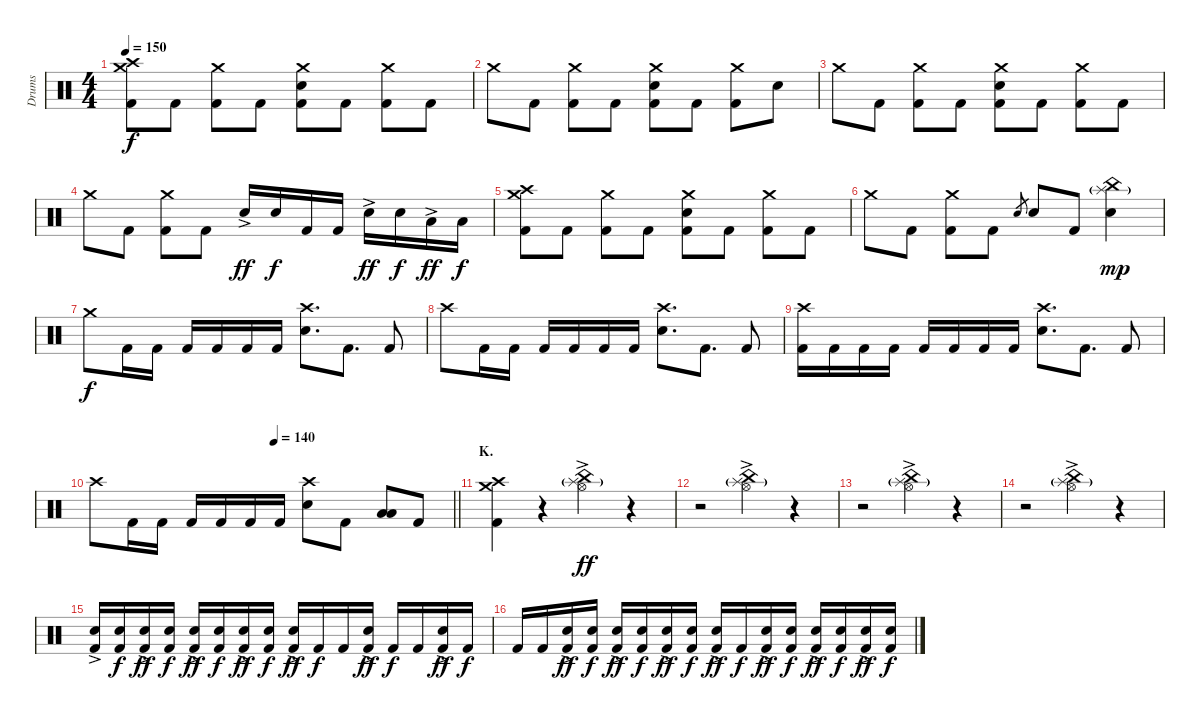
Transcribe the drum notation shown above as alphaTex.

\track ("Drums" "Drums") {instrument percussion}
\staff {score}
\articulation defaults
\ts (4 4)
\tempo 150
\clef neutral
\ks c
("Crash medium (hit)" "Crash high (hit)" "Kick (hit) 2").8{dy f} "Kick (hit) 2".8 ("Crash medium (hit)" "Kick (hit) 2").8 "Kick (hit) 2".8 ("Crash medium (hit)" "Electric Snare (hit)" "Kick (hit) 2").8 "Kick (hit) 2".8 ("Crash medium (hit)" "Kick (hit) 2").8 "Kick (hit) 2".8 |
"Crash medium (hit)".8 "Kick (hit) 2".8 ("Crash medium (hit)" "Kick (hit) 2").8 "Kick (hit) 2".8 ("Crash medium (hit)" "Electric Snare (hit)" "Kick (hit) 2").8 "Kick (hit) 2".8 ("Crash medium (hit)" "Kick (hit) 2").8 "Electric Snare (hit)".8 |
"Crash medium (hit)".8 "Kick (hit) 2".8 ("Crash medium (hit)" "Kick (hit) 2").8 "Kick (hit) 2".8 ("Crash medium (hit)" "Electric Snare (hit)" "Kick (hit) 2").8 "Kick (hit) 2".8 ("Crash medium (hit)" "Kick (hit) 2").8 "Kick (hit) 2".8 |
"Crash medium (hit)".8 "Kick (hit) 2".8 ("Crash medium (hit)" "Kick (hit) 2").8 "Kick (hit) 2".8 "Electric Snare (hit)"{ac}.16{dy ff} "Electric Snare (hit)".16{dy f} "Kick (hit) 2".16 "Kick (hit) 2".16 "Electric Snare (hit)"{ac}.16{dy ff} "Electric Snare (hit)".16{dy f} "Low Tom (hit)"{ac}.16{dy ff} "Low Tom (hit)".16{dy f} |
("Crash medium (hit)" "Crash high (hit)" "Kick (hit) 2").8 "Kick (hit) 2".8 ("Crash medium (hit)" "Kick (hit) 2").8 "Kick (hit) 2".8 ("Crash medium (hit)" "Electric Snare (hit)" "Kick (hit) 2").8 "Kick (hit) 2".8 ("Crash medium (hit)" "Kick (hit) 2").8 "Kick (hit) 2".8 |
"Crash medium (hit)".8 "Kick (hit) 2".8 ("Crash medium (hit)" "Kick (hit) 2").8 "Kick (hit) 2".8 "Electric Snare (hit)".8{gr} "Electric Snare (hit)".8 "Kick (hit) 2".8 ("China (hit)" "Splash (hit)"{g} "Electric Snare (hit)").4{dy mp} |
"Crash medium (hit)".8{dy f} "Kick (hit) 2".16 "Kick (hit) 2".16 "Kick (hit) 2".16 "Kick (hit) 2".16 "Kick (hit) 2".16 "Kick (hit) 2".16 ("Crash high (hit)" "Electric Snare (hit)").8{d} "Kick (hit) 2".8{d} "Kick (hit) 2".8 |
"Crash high (hit)".8 "Kick (hit) 2".16 "Kick (hit) 2".16 "Kick (hit) 2".16 "Kick (hit) 2".16 "Kick (hit) 2".16 "Kick (hit) 2".16 ("Crash high (hit)" "Electric Snare (hit)").8{d} "Kick (hit) 2".8{d} "Kick (hit) 2".8 |
("Crash high (hit)" "Kick (hit) 2").16 "Kick (hit) 2".16 "Kick (hit) 2".16 "Kick (hit) 2".16 "Kick (hit) 2".16 "Kick (hit) 2".16 "Kick (hit) 2".16 "Kick (hit) 2".16 ("Crash high (hit)" "Electric Snare (hit)").8{d} "Kick (hit) 2".8{d} "Kick (hit) 2".8 |
\tempo (140 0.5)
\barLineRight lightlight "Crash high (hit)".8 "Kick (hit) 2".16 "Kick (hit) 2".16 "Kick (hit) 2".16 "Kick (hit) 2".16 "Kick (hit) 2".16 "Kick (hit) 2".16
("Crash high (hit)" "Electric Snare (hit)").8 "Kick (hit) 2".8 ("Low Tom (hit)" "Low Floor Tom (hit)").8{bu 120} "Kick (hit) 2".8 |
\section ("" "K.")
("Crash medium (hit)" "Crash high (hit)" "Kick (hit) 2").4 r.4 ("China (hit)" "Splash (hit)"{g} "Hi-Hat (open)"{ac}).4{dy ff} r.4 |
r.2 ("China (hit)" "Splash (hit)"{g} "Hi-Hat (open)"{ac}).4 r.4 |
r.2 ("China (hit)" "Splash (hit)"{g} "Hi-Hat (open)"{ac}).4 r.4 |
r.2 ("China (hit)" "Splash (hit)"{g} "Hi-Hat (open)"{ac}).4 r.4 |
("Electric Snare (hit)"{ac} "Kick (hit) 2").16 ("Electric Snare (hit)" "Kick (hit) 2").16{dy f} ("Electric Snare (hit)"{ac} "Kick (hit) 2").16{dy ff} ("Electric Snare (hit)" "Kick (hit) 2").16{dy f} ("Electric Snare (hit)"{ac} "Kick (hit) 2").16{dy ff} ("Electric Snare (hit)" "Kick (hit) 2").16{dy f} ("Electric Snare (hit)"{ac} "Kick (hit) 2").16{dy ff} ("Electric Snare (hit)" "Kick (hit) 2").16{dy f} ("Electric Snare (hit)"{ac} "Kick (hit) 2").16{dy ff} "Kick (hit) 2".16{dy f} "Kick (hit) 2".16 ("Electric Snare (hit)"{ac} "Kick (hit) 2").16{dy ff} "Kick (hit) 2".16{dy f} "Kick (hit) 2".16 ("Electric Snare (hit)"{ac} "Kick (hit) 2").16{dy ff} "Kick (hit) 2".16{dy f} |
"Kick (hit) 2".16 "Kick (hit) 2".16 ("Electric Snare (hit)"{ac} "Kick (hit) 2").16{dy ff} ("Electric Snare (hit)" "Kick (hit) 2").16{dy f} ("Electric Snare (hit)"{ac} "Kick (hit) 2").16{dy ff} ("Electric Snare (hit)" "Kick (hit) 2").16{dy f} ("Electric Snare (hit)"{ac} "Kick (hit) 2").16{dy ff} ("Electric Snare (hit)" "Kick (hit) 2").16{dy f} ("Electric Snare (hit)"{ac} "Kick (hit) 2").16{dy ff} "Kick (hit) 2".16{dy f} ("Electric Snare (hit)"{ac} "Kick (hit) 2").16{dy ff} ("Electric Snare (hit)" "Kick (hit) 2").16{dy f} ("Electric Snare (hit)"{ac} "Kick (hit) 2").16{dy ff} ("Electric Snare (hit)" "Kick (hit) 2").16{dy f} ("Electric Snare (hit)"{ac} "Kick (hit) 2").16{dy ff} ("Electric Snare (hit)" "Kick (hit) 2").16{dy f}
